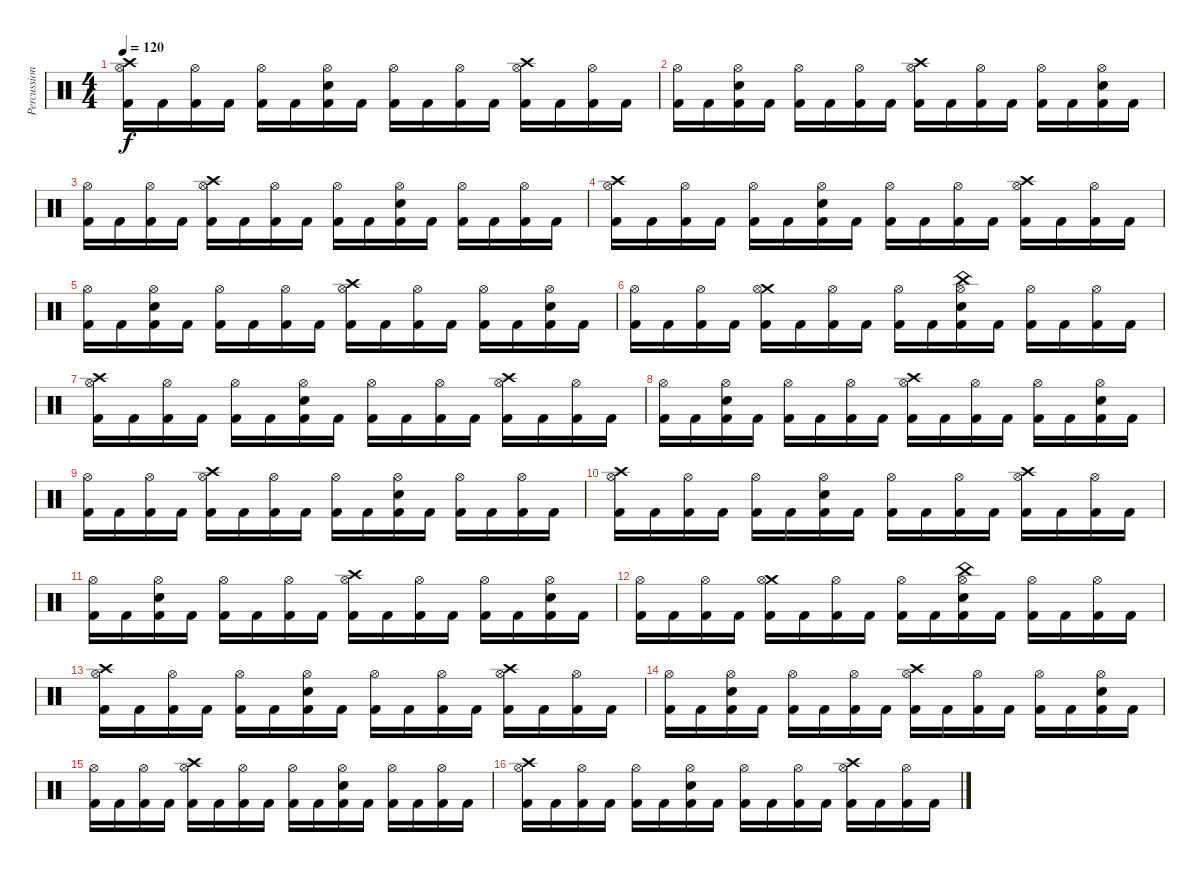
\track ("Percussion" "Percussion") {instrument percussion}
\staff {score}
\articulation defaults
\ts (4 4)
\tempo 120
\clef neutral
\ks c
("Crash high (hit)" "Hi-Hat (open)" "Kick (hit) 2").16{dy f} "Kick (hit) 2".16 ("Hi-Hat (open)" "Kick (hit) 2").16 "Kick (hit) 2".16 ("Hi-Hat (open)" "Kick (hit) 2").16 "Kick (hit) 2".16 ("Hi-Hat (open)" "Snare (hit) 2" "Kick (hit) 2").16 "Kick (hit) 2".16 ("Hi-Hat (open)" "Kick (hit) 2").16 "Kick (hit) 2".16 ("Hi-Hat (open)" "Kick (hit) 2").16 "Kick (hit) 2".16 ("Crash high (hit)" "Hi-Hat (open)" "Kick (hit) 2").16 "Kick (hit) 2".16 ("Hi-Hat (open)" "Kick (hit) 2").16 "Kick (hit) 2".16 |
("Hi-Hat (open)" "Kick (hit) 2").16 "Kick (hit) 2".16 ("Hi-Hat (open)" "Snare (hit) 2" "Kick (hit) 2").16 "Kick (hit) 2".16 ("Hi-Hat (open)" "Kick (hit) 2").16 "Kick (hit) 2".16 ("Hi-Hat (open)" "Kick (hit) 2").16 "Kick (hit) 2".16 ("Crash high (hit)" "Hi-Hat (open)" "Kick (hit) 2").16 "Kick (hit) 2".16 ("Hi-Hat (open)" "Kick (hit) 2").16 "Kick (hit) 2".16 ("Hi-Hat (open)" "Kick (hit) 2").16 "Kick (hit) 2".16 ("Hi-Hat (open)" "Snare (hit) 2" "Kick (hit) 2").16 "Kick (hit) 2".16 |
("Hi-Hat (open)" "Kick (hit) 2").16 "Kick (hit) 2".16 ("Hi-Hat (open)" "Kick (hit) 2").16 "Kick (hit) 2".16 ("Crash high (hit)" "Hi-Hat (open)" "Kick (hit) 2").16 "Kick (hit) 2".16 ("Hi-Hat (open)" "Kick (hit) 2").16 "Kick (hit) 2".16 ("Hi-Hat (open)" "Kick (hit) 2").16 "Kick (hit) 2".16 ("Hi-Hat (open)" "Snare (hit) 2" "Kick (hit) 2").16 "Kick (hit) 2".16 ("Hi-Hat (open)" "Kick (hit) 2").16 "Kick (hit) 2".16 ("Hi-Hat (open)" "Kick (hit) 2").16 "Kick (hit) 2".16 |
("Crash high (hit)" "Hi-Hat (open)" "Kick (hit) 2").16 "Kick (hit) 2".16 ("Hi-Hat (open)" "Kick (hit) 2").16 "Kick (hit) 2".16 ("Hi-Hat (open)" "Kick (hit) 2").16 "Kick (hit) 2".16 ("Hi-Hat (open)" "Snare (hit) 2" "Kick (hit) 2").16 "Kick (hit) 2".16 ("Hi-Hat (open)" "Kick (hit) 2").16 "Kick (hit) 2".16 ("Hi-Hat (open)" "Kick (hit) 2").16 "Kick (hit) 2".16 ("Crash high (hit)" "Hi-Hat (open)" "Kick (hit) 2").16 "Kick (hit) 2".16 ("Hi-Hat (open)" "Kick (hit) 2").16 "Kick (hit) 2".16 |
("Hi-Hat (open)" "Kick (hit) 2").16 "Kick (hit) 2".16 ("Hi-Hat (open)" "Snare (hit) 2" "Kick (hit) 2").16 "Kick (hit) 2".16 ("Hi-Hat (open)" "Kick (hit) 2").16 "Kick (hit) 2".16 ("Hi-Hat (open)" "Kick (hit) 2").16 "Kick (hit) 2".16 ("Crash high (hit)" "Hi-Hat (open)" "Kick (hit) 2").16 "Kick (hit) 2".16 ("Hi-Hat (open)" "Kick (hit) 2").16 "Kick (hit) 2".16 ("Hi-Hat (open)" "Kick (hit) 2").16 "Kick (hit) 2".16 ("Hi-Hat (open)" "Snare (hit) 2" "Kick (hit) 2").16 "Kick (hit) 2".16 |
("Hi-Hat (open)" "Kick (hit) 2").16 "Kick (hit) 2".16 ("Hi-Hat (open)" "Kick (hit) 2").16 "Kick (hit) 2".16 ("Crash medium (hit)" "Hi-Hat (open)" "Kick (hit) 2").16 "Kick (hit) 2".16 ("Hi-Hat (open)" "Kick (hit) 2").16 "Kick (hit) 2".16 ("Hi-Hat (open)" "Kick (hit) 2").16 "Kick (hit) 2".16 ("China (hit)" "Hi-Hat (open)" "Snare (hit) 2" "Kick (hit) 2").16 "Kick (hit) 2".16 ("Hi-Hat (open)" "Kick (hit) 2").16 "Kick (hit) 2".16 ("Hi-Hat (open)" "Kick (hit) 2").16 "Kick (hit) 2".16 |
("Crash high (hit)" "Hi-Hat (open)" "Kick (hit) 2").16{volume 7} "Kick (hit) 2".16 ("Hi-Hat (open)" "Kick (hit) 2").16 "Kick (hit) 2".16 ("Hi-Hat (open)" "Kick (hit) 2").16 "Kick (hit) 2".16 ("Hi-Hat (open)" "Snare (hit) 2" "Kick (hit) 2").16 "Kick (hit) 2".16 ("Hi-Hat (open)" "Kick (hit) 2").16 "Kick (hit) 2".16 ("Hi-Hat (open)" "Kick (hit) 2").16 "Kick (hit) 2".16 ("Crash high (hit)" "Hi-Hat (open)" "Kick (hit) 2").16 "Kick (hit) 2".16 ("Hi-Hat (open)" "Kick (hit) 2").16 "Kick (hit) 2".16 |
("Hi-Hat (open)" "Kick (hit) 2").16 "Kick (hit) 2".16 ("Hi-Hat (open)" "Snare (hit) 2" "Kick (hit) 2").16 "Kick (hit) 2".16 ("Hi-Hat (open)" "Kick (hit) 2").16 "Kick (hit) 2".16 ("Hi-Hat (open)" "Kick (hit) 2").16 "Kick (hit) 2".16 ("Crash high (hit)" "Hi-Hat (open)" "Kick (hit) 2").16 "Kick (hit) 2".16 ("Hi-Hat (open)" "Kick (hit) 2").16 "Kick (hit) 2".16 ("Hi-Hat (open)" "Kick (hit) 2").16 "Kick (hit) 2".16 ("Hi-Hat (open)" "Snare (hit) 2" "Kick (hit) 2").16 "Kick (hit) 2".16 |
("Hi-Hat (open)" "Kick (hit) 2").16 "Kick (hit) 2".16 ("Hi-Hat (open)" "Kick (hit) 2").16 "Kick (hit) 2".16 ("Crash high (hit)" "Hi-Hat (open)" "Kick (hit) 2").16 "Kick (hit) 2".16 ("Hi-Hat (open)" "Kick (hit) 2").16 "Kick (hit) 2".16 ("Hi-Hat (open)" "Kick (hit) 2").16 "Kick (hit) 2".16 ("Hi-Hat (open)" "Snare (hit) 2" "Kick (hit) 2").16 "Kick (hit) 2".16 ("Hi-Hat (open)" "Kick (hit) 2").16 "Kick (hit) 2".16 ("Hi-Hat (open)" "Kick (hit) 2").16 "Kick (hit) 2".16 |
("Crash high (hit)" "Hi-Hat (open)" "Kick (hit) 2").16 "Kick (hit) 2".16 ("Hi-Hat (open)" "Kick (hit) 2").16 "Kick (hit) 2".16 ("Hi-Hat (open)" "Kick (hit) 2").16 "Kick (hit) 2".16 ("Hi-Hat (open)" "Snare (hit) 2" "Kick (hit) 2").16 "Kick (hit) 2".16 ("Hi-Hat (open)" "Kick (hit) 2").16 "Kick (hit) 2".16 ("Hi-Hat (open)" "Kick (hit) 2").16 "Kick (hit) 2".16 ("Crash high (hit)" "Hi-Hat (open)" "Kick (hit) 2").16 "Kick (hit) 2".16 ("Hi-Hat (open)" "Kick (hit) 2").16 "Kick (hit) 2".16 |
("Hi-Hat (open)" "Kick (hit) 2").16{volume 2} "Kick (hit) 2".16 ("Hi-Hat (open)" "Snare (hit) 2" "Kick (hit) 2").16 "Kick (hit) 2".16 ("Hi-Hat (open)" "Kick (hit) 2").16 "Kick (hit) 2".16 ("Hi-Hat (open)" "Kick (hit) 2").16 "Kick (hit) 2".16 ("Crash high (hit)" "Hi-Hat (open)" "Kick (hit) 2").16 "Kick (hit) 2".16 ("Hi-Hat (open)" "Kick (hit) 2").16 "Kick (hit) 2".16 ("Hi-Hat (open)" "Kick (hit) 2").16 "Kick (hit) 2".16 ("Hi-Hat (open)" "Snare (hit) 2" "Kick (hit) 2").16 "Kick (hit) 2".16 |
("Hi-Hat (open)" "Kick (hit) 2").16 "Kick (hit) 2".16 ("Hi-Hat (open)" "Kick (hit) 2").16 "Kick (hit) 2".16 ("Crash medium (hit)" "Hi-Hat (open)" "Kick (hit) 2").16 "Kick (hit) 2".16 ("Hi-Hat (open)" "Kick (hit) 2").16 "Kick (hit) 2".16 ("Hi-Hat (open)" "Kick (hit) 2").16 "Kick (hit) 2".16 ("China (hit)" "Hi-Hat (open)" "Snare (hit) 2" "Kick (hit) 2").16 "Kick (hit) 2".16 ("Hi-Hat (open)" "Kick (hit) 2").16 "Kick (hit) 2".16 ("Hi-Hat (open)" "Kick (hit) 2").16 "Kick (hit) 2".16 |
("Crash high (hit)" "Hi-Hat (open)" "Kick (hit) 2").16 "Kick (hit) 2".16 ("Hi-Hat (open)" "Kick (hit) 2").16 "Kick (hit) 2".16 ("Hi-Hat (open)" "Kick (hit) 2").16 "Kick (hit) 2".16 ("Hi-Hat (open)" "Snare (hit) 2" "Kick (hit) 2").16 "Kick (hit) 2".16 ("Hi-Hat (open)" "Kick (hit) 2").16 "Kick (hit) 2".16 ("Hi-Hat (open)" "Kick (hit) 2").16 "Kick (hit) 2".16 ("Crash high (hit)" "Hi-Hat (open)" "Kick (hit) 2").16 "Kick (hit) 2".16 ("Hi-Hat (open)" "Kick (hit) 2").16 "Kick (hit) 2".16 |
("Hi-Hat (open)" "Kick (hit) 2").16 "Kick (hit) 2".16 ("Hi-Hat (open)" "Snare (hit) 2" "Kick (hit) 2").16 "Kick (hit) 2".16 ("Hi-Hat (open)" "Kick (hit) 2").16 "Kick (hit) 2".16 ("Hi-Hat (open)" "Kick (hit) 2").16 "Kick (hit) 2".16 ("Crash high (hit)" "Hi-Hat (open)" "Kick (hit) 2").16 "Kick (hit) 2".16 ("Hi-Hat (open)" "Kick (hit) 2").16 "Kick (hit) 2".16 ("Hi-Hat (open)" "Kick (hit) 2").16 "Kick (hit) 2".16 ("Hi-Hat (open)" "Snare (hit) 2" "Kick (hit) 2").16 "Kick (hit) 2".16 |
("Hi-Hat (open)" "Kick (hit) 2").16{volume 0} "Kick (hit) 2".16 ("Hi-Hat (open)" "Kick (hit) 2").16 "Kick (hit) 2".16 ("Crash high (hit)" "Hi-Hat (open)" "Kick (hit) 2").16 "Kick (hit) 2".16 ("Hi-Hat (open)" "Kick (hit) 2").16 "Kick (hit) 2".16 ("Hi-Hat (open)" "Kick (hit) 2").16 "Kick (hit) 2".16 ("Hi-Hat (open)" "Snare (hit) 2" "Kick (hit) 2").16 "Kick (hit) 2".16 ("Hi-Hat (open)" "Kick (hit) 2").16 "Kick (hit) 2".16 ("Hi-Hat (open)" "Kick (hit) 2").16 "Kick (hit) 2".16 |
("Crash high (hit)" "Hi-Hat (open)" "Kick (hit) 2").16 "Kick (hit) 2".16 ("Hi-Hat (open)" "Kick (hit) 2").16 "Kick (hit) 2".16 ("Hi-Hat (open)" "Kick (hit) 2").16 "Kick (hit) 2".16 ("Hi-Hat (open)" "Snare (hit) 2" "Kick (hit) 2").16 "Kick (hit) 2".16 ("Hi-Hat (open)" "Kick (hit) 2").16 "Kick (hit) 2".16 ("Hi-Hat (open)" "Kick (hit) 2").16 "Kick (hit) 2".16 ("Crash high (hit)" "Hi-Hat (open)" "Kick (hit) 2").16 "Kick (hit) 2".16 ("Hi-Hat (open)" "Kick (hit) 2").16 "Kick (hit) 2".16
